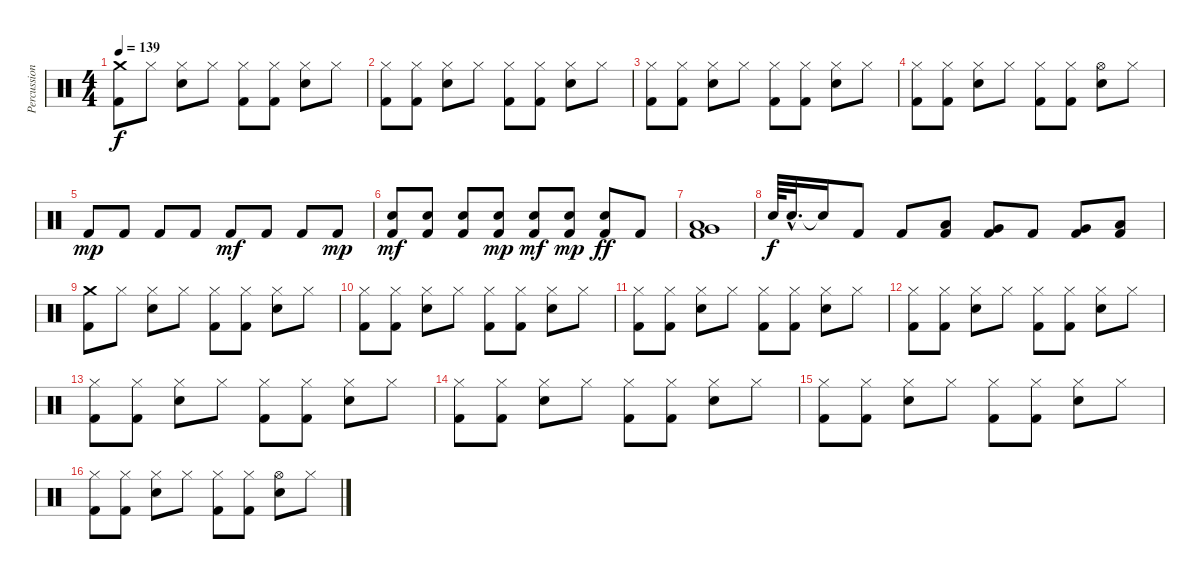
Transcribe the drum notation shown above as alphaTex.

\track ("Percussion" "Percussion") {instrument percussion}
\staff {score}
\articulation defaults
\ts (4 4)
\tempo 139
\clef neutral
\ks c
("Crash medium (hit)" "Kick (hit) 2").8{dy f} "Hi-Hat (closed)".8 ("Hi-Hat (closed)" "Metronome (bell)").8 "Hi-Hat (closed)".8 ("Hi-Hat (closed)" "Kick (hit) 2").8 ("Hi-Hat (closed)" "Kick (hit) 2").8 ("Hi-Hat (closed)" "Metronome (bell)").8 "Hi-Hat (closed)".8 |
("Hi-Hat (closed)" "Kick (hit) 2").8 ("Hi-Hat (closed)" "Kick (hit) 2").8 ("Hi-Hat (closed)" "Metronome (bell)").8 "Hi-Hat (closed)".8 ("Hi-Hat (closed)" "Kick (hit) 2").8 ("Hi-Hat (closed)" "Kick (hit) 2").8 ("Hi-Hat (closed)" "Metronome (bell)").8 "Hi-Hat (closed)".8 |
("Hi-Hat (closed)" "Kick (hit) 2").8 ("Hi-Hat (closed)" "Kick (hit) 2").8 ("Hi-Hat (closed)" "Metronome (bell)").8 "Hi-Hat (closed)".8 ("Hi-Hat (closed)" "Kick (hit) 2").8 ("Hi-Hat (closed)" "Kick (hit) 2").8 ("Hi-Hat (closed)" "Metronome (bell)").8 "Hi-Hat (closed)".8 |
("Hi-Hat (closed)" "Kick (hit) 2").8 ("Hi-Hat (closed)" "Kick (hit) 2").8 ("Hi-Hat (closed)" "Metronome (bell)").8 "Hi-Hat (closed)".8 ("Hi-Hat (closed)" "Kick (hit) 2").8 ("Hi-Hat (closed)" "Kick (hit) 2").8 ("Hi-Hat (open)" "Metronome (bell)").8 "Hi-Hat (closed)".8 |
"Kick (hit) 2".8{dy mp} "Kick (hit) 2".8 "Kick (hit) 2".8 "Kick (hit) 2".8 "Kick (hit) 2".8{dy mf} "Kick (hit) 2".8 "Kick (hit) 2".8 "Kick (hit) 2".8{dy mp} |
("Metronome (bell)" "Kick (hit) 2").8{dy mf} ("Metronome (bell)" "Kick (hit) 2").8 ("Metronome (bell)" "Kick (hit) 2").8 ("Metronome (bell)" "Kick (hit) 2").8{dy mp} ("Metronome (bell)" "Kick (hit) 2").8{dy mf} ("Metronome (bell)" "Kick (hit) 2").8{dy mp} ("Metronome (bell)" "Kick (hit) 2").8{dy ff} "Kick (hit) 2".8 |
("Low Floor Tom (hit)" "Very Low Tom (hit)" "Kick (hit) 2").1 |
"Metronome (bell)".64{dy f} "Metronome (bell)"{hac}.32{d} "Snare (hit)"{t}.16 "Kick (hit) 2".8 "Kick (hit) 2".8 ("Low Tom (hit)" "Kick (hit) 2").8 ("Very Low Tom (hit)" "Kick (hit) 2").8 "Kick (hit) 2".8 ("Very Low Tom (hit)" "Kick (hit) 2").8 ("Low Floor Tom (hit)" "Kick (hit) 2").8 |
("Crash medium (hit)" "Kick (hit) 2").8 "Hi-Hat (closed)".8 ("Hi-Hat (closed)" "Metronome (bell)").8 "Hi-Hat (closed)".8 ("Hi-Hat (closed)" "Kick (hit) 2").8 ("Hi-Hat (closed)" "Kick (hit) 2").8 ("Hi-Hat (closed)" "Metronome (bell)").8 "Hi-Hat (closed)".8 |
("Hi-Hat (closed)" "Kick (hit) 2").8 ("Hi-Hat (closed)" "Kick (hit) 2").8 ("Hi-Hat (closed)" "Metronome (bell)").8 "Hi-Hat (closed)".8 ("Hi-Hat (closed)" "Kick (hit) 2").8 ("Hi-Hat (closed)" "Kick (hit) 2").8 ("Hi-Hat (closed)" "Metronome (bell)").8 "Hi-Hat (closed)".8 |
("Hi-Hat (closed)" "Kick (hit) 2").8 ("Hi-Hat (closed)" "Kick (hit) 2").8 ("Hi-Hat (closed)" "Metronome (bell)").8 "Hi-Hat (closed)".8 ("Hi-Hat (closed)" "Kick (hit) 2").8 ("Hi-Hat (closed)" "Kick (hit) 2").8 ("Hi-Hat (closed)" "Metronome (bell)").8 "Hi-Hat (closed)".8 |
("Hi-Hat (closed)" "Kick (hit) 2").8 ("Hi-Hat (closed)" "Kick (hit) 2").8 ("Hi-Hat (closed)" "Metronome (bell)").8 "Hi-Hat (closed)".8 ("Hi-Hat (closed)" "Kick (hit) 2").8 ("Hi-Hat (closed)" "Kick (hit) 2").8 ("Hi-Hat (closed)" "Metronome (bell)").8 "Hi-Hat (closed)".8 |
("Hi-Hat (closed)" "Kick (hit) 2").8 ("Hi-Hat (closed)" "Kick (hit) 2").8 ("Hi-Hat (closed)" "Metronome (bell)").8 "Hi-Hat (closed)".8 ("Hi-Hat (closed)" "Kick (hit) 2").8 ("Hi-Hat (closed)" "Kick (hit) 2").8 ("Hi-Hat (closed)" "Metronome (bell)").8 "Hi-Hat (closed)".8 |
("Hi-Hat (closed)" "Kick (hit) 2").8 ("Hi-Hat (closed)" "Kick (hit) 2").8 ("Hi-Hat (closed)" "Metronome (bell)").8 "Hi-Hat (closed)".8 ("Hi-Hat (closed)" "Kick (hit) 2").8 ("Hi-Hat (closed)" "Kick (hit) 2").8 ("Hi-Hat (closed)" "Metronome (bell)").8 "Hi-Hat (closed)".8 |
("Hi-Hat (closed)" "Kick (hit) 2").8 ("Hi-Hat (closed)" "Kick (hit) 2").8 ("Hi-Hat (closed)" "Metronome (bell)").8 "Hi-Hat (closed)".8 ("Hi-Hat (closed)" "Kick (hit) 2").8 ("Hi-Hat (closed)" "Kick (hit) 2").8 ("Hi-Hat (closed)" "Metronome (bell)").8 "Hi-Hat (closed)".8 |
("Hi-Hat (closed)" "Kick (hit) 2").8 ("Hi-Hat (closed)" "Kick (hit) 2").8 ("Hi-Hat (closed)" "Metronome (bell)").8 "Hi-Hat (closed)".8 ("Hi-Hat (closed)" "Kick (hit) 2").8 ("Hi-Hat (closed)" "Kick (hit) 2").8 ("Hi-Hat (open)" "Metronome (bell)").8 "Hi-Hat (closed)".8
